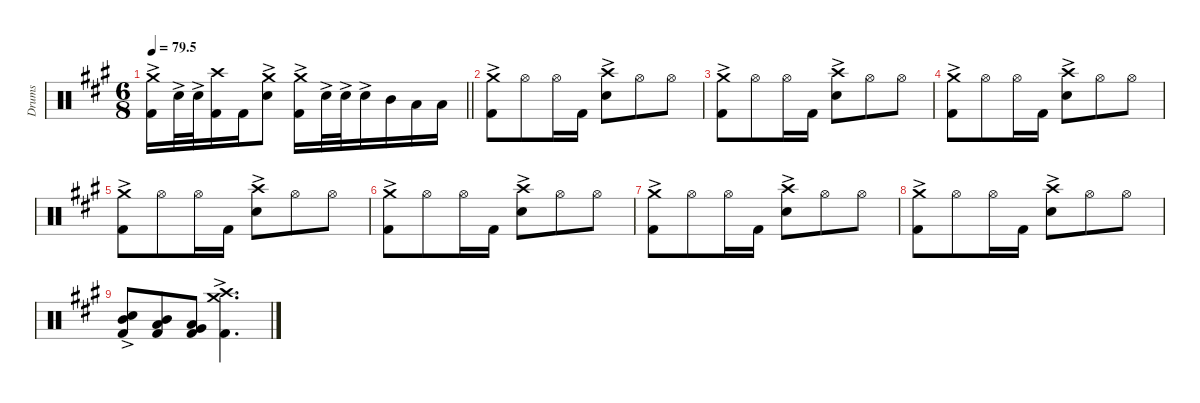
\defaultSystemsLayout 4
\hideDynamics
\bracketExtendMode nobrackets
\otherSystemsTrackNameOrientation horizontal
\track ("Drumkit-show" "Drums") {mute instrument percussion}
\staff {score}
\articulation defaults
\ts (6 8)
\tempo
79.5
\accidentals auto
\clef neutral
\ottava regular
\simile none
\barLineRight lightlight
\ks a
("Crash medium (hit)"{ac acc forcenatural} "Kick (hit) 2"{acc forcenatural}).16{dy f beam Down} "Snare (hit) 2"{ac acc forcenatural}.32{beam Down} "Snare (hit) 2"{ac acc forcenatural}.32{beam Down} ("Crash high (hit)"{acc forcenatural} "Kick (hit) 2"{acc forcenatural}).16{beam Down} "Kick (hit) 2"{acc forcenatural}.16{beam Down} ("Crash medium (hit)"{ac acc forcenatural} "Snare (hit) 2"{ac acc forcenatural}).8{beam Down} ("Crash medium (hit)"{ac acc forcenatural} "Kick (hit) 2"{acc forcenatural}).16{beam Down} "Snare (hit) 2"{ac acc forcenatural}.32{beam Down} "Snare (hit) 2"{ac acc forcenatural}.32{beam Down} "Snare (hit) 2"{ac acc forcenatural}.16{beam Down} "Mid Tom (hit)"{acc forcenatural}.16{beam Down} "Low Tom (hit)"{acc forcenatural}.16{beam Down} "Low Tom (hit)"{acc forcenatural}.16{beam Down} |
("Crash medium (hit)"{ac acc forcenatural} "Kick (hit) 2"{acc forcenatural}).8{beam Down} "Hi-Hat (open)"{acc forcenatural}.8{beam Down} "Hi-Hat (open)"{acc forcenatural}.16{beam Down} "Kick (hit) 2"{acc forcenatural}.16{beam Down} ("Crash high (hit)"{acc forcenatural} "Snare (hit) 2"{ac acc forcenatural}).8{beam Down} "Hi-Hat (open)"{acc forcenatural}.8{beam Down} "Hi-Hat (open)"{acc forcenatural}.8{beam Down} |
("Crash medium (hit)"{ac acc forcenatural} "Kick (hit) 2"{acc forcenatural}).8{beam Down} "Hi-Hat (open)"{acc forcenatural}.8{beam Down} "Hi-Hat (open)"{acc forcenatural}.16{beam Down} "Kick (hit) 2"{acc forcenatural}.16{beam Down} ("Crash high (hit)"{acc forcenatural} "Snare (hit) 2"{ac acc forcenatural}).8{beam Down} "Hi-Hat (open)"{acc forcenatural}.8{beam Down} "Hi-Hat (open)"{acc forcenatural}.8{beam Down} |
("Crash medium (hit)"{ac acc forcenatural} "Kick (hit) 2"{acc forcenatural}).8{beam Down} "Hi-Hat (open)"{acc forcenatural}.8{beam Down} "Hi-Hat (open)"{acc forcenatural}.16{beam Down} "Kick (hit) 2"{acc forcenatural}.16{beam Down} ("Crash high (hit)"{acc forcenatural} "Snare (hit) 2"{ac acc forcenatural}).8{beam Down} "Hi-Hat (open)"{acc forcenatural}.8{beam Down} "Hi-Hat (open)"{acc forcenatural}.8{beam Down} |
("Crash medium (hit)"{ac acc forcenatural} "Kick (hit) 2"{acc forcenatural}).8{beam Down} "Hi-Hat (open)"{acc forcenatural}.8{beam Down} "Hi-Hat (open)"{acc forcenatural}.16{beam Down} "Kick (hit) 2"{acc forcenatural}.16{beam Down} ("Crash high (hit)"{acc forcenatural} "Snare (hit) 2"{ac acc forcenatural}).8{beam Down} "Hi-Hat (open)"{acc forcenatural}.8{beam Down} "Hi-Hat (open)"{acc forcenatural}.8{beam Down} |
("Crash medium (hit)"{ac acc forcenatural} "Kick (hit) 2"{acc forcenatural}).8{beam Down} "Hi-Hat (open)"{acc forcenatural}.8{beam Down} "Hi-Hat (open)"{acc forcenatural}.16{beam Down} "Kick (hit) 2"{acc forcenatural}.16{beam Down} ("Crash high (hit)"{acc forcenatural} "Snare (hit) 2"{ac acc forcenatural}).8{beam Down} "Hi-Hat (open)"{acc forcenatural}.8{beam Down} "Hi-Hat (open)"{acc forcenatural}.8{beam Down} |
("Crash medium (hit)"{ac acc forcenatural} "Kick (hit) 2"{acc forcenatural}).8{beam Down} "Hi-Hat (open)"{acc forcenatural}.8{beam Down} "Hi-Hat (open)"{acc forcenatural}.16{beam Down} "Kick (hit) 2"{acc forcenatural}.16{beam Down} ("Crash high (hit)"{acc forcenatural} "Snare (hit) 2"{ac acc forcenatural}).8{beam Down} "Hi-Hat (open)"{acc forcenatural}.8{beam Down} "Hi-Hat (open)"{acc forcenatural}.8{beam Down} |
("Crash medium (hit)"{ac acc forcenatural} "Kick (hit) 2"{acc forcenatural}).8{beam Down} "Hi-Hat (open)"{acc forcenatural}.8{beam Down} "Hi-Hat (open)"{acc forcenatural}.16{beam Down} "Kick (hit) 2"{acc forcenatural}.16{beam Down} ("Crash high (hit)"{acc forcenatural} "Snare (hit) 2"{ac acc forcenatural}).8{beam Down} "Hi-Hat (open)"{acc forcenatural}.8{beam Down} "Hi-Hat (open)"{acc forcenatural}.8{beam Down} |
("Mid Tom (hit)"{acc forcenatural} "Snare (hit) 2"{ac acc forcenatural} "Kick (hit) 2"{acc forcenatural}).8{beam Up} ("Mid Tom (hit)"{acc forcenatural} "Low Tom (hit)"{acc forcenatural} "Kick (hit) 2"{acc forcenatural}).8{beam Up} ("Low Tom (hit)"{acc forcenatural} "Very Low Tom (hit)"{acc forcenatural} "Kick (hit) 2"{acc forcenatural}).8{beam Up} ("Crash medium (hit)"{ac acc forcenatural} "Crash high (hit)"{acc forcenatural} "Kick (hit) 2"{acc forcenatural}).4{d beam Down}
